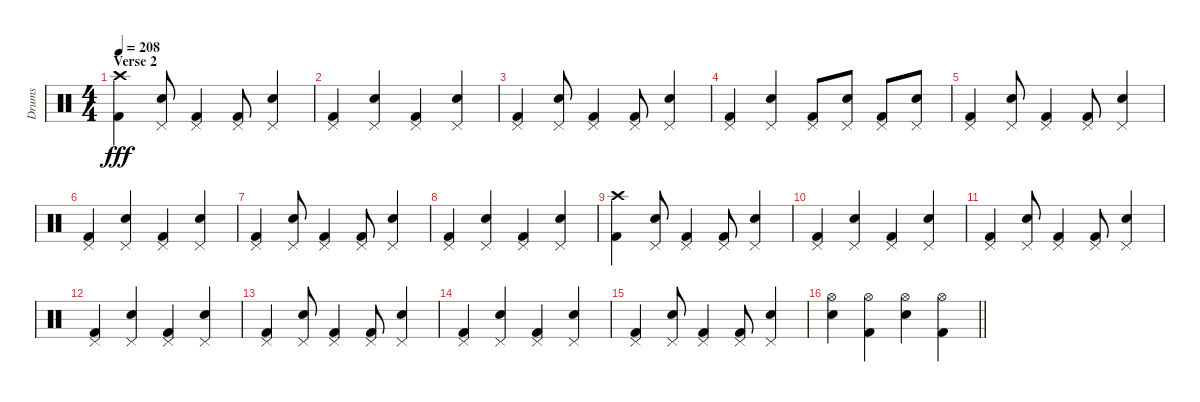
\track ("Drums" "Drums") {instrument percussion}
\staff {score}
\articulation defaults
\ts (4 4)
\section ("" "Verse 2")
\tempo 208
\clef neutral
\ks c
("Crash high (hit)" "Kick (hit) 2").4{dy fff} ("Pedal Hi-Hat (hit)" "Snare (hit) 2").8 ("Pedal Hi-Hat (hit)" "Kick (hit) 2").4 ("Pedal Hi-Hat (hit)" "Kick (hit) 2").8 ("Pedal Hi-Hat (hit)" "Snare (hit) 2").4 |
("Pedal Hi-Hat (hit)" "Kick (hit) 2").4 ("Pedal Hi-Hat (hit)" "Snare (hit) 2").4 ("Pedal Hi-Hat (hit)" "Kick (hit) 2").4 ("Pedal Hi-Hat (hit)" "Snare (hit) 2").4 |
("Pedal Hi-Hat (hit)" "Kick (hit) 2").4 ("Pedal Hi-Hat (hit)" "Snare (hit) 2").8 ("Pedal Hi-Hat (hit)" "Kick (hit) 2").4 ("Pedal Hi-Hat (hit)" "Kick (hit) 2").8 ("Pedal Hi-Hat (hit)" "Snare (hit) 2").4 |
("Pedal Hi-Hat (hit)" "Kick (hit) 2").4 ("Pedal Hi-Hat (hit)" "Snare (hit) 2").4 ("Pedal Hi-Hat (hit)" "Kick (hit) 2").8 ("Pedal Hi-Hat (hit)" "Snare (hit) 2").8 ("Pedal Hi-Hat (hit)" "Kick (hit) 2").8 ("Pedal Hi-Hat (hit)" "Snare (hit) 2").8 |
("Pedal Hi-Hat (hit)" "Kick (hit) 2").4 ("Pedal Hi-Hat (hit)" "Snare (hit) 2").8 ("Pedal Hi-Hat (hit)" "Kick (hit) 2").4 ("Pedal Hi-Hat (hit)" "Kick (hit) 2").8 ("Pedal Hi-Hat (hit)" "Snare (hit) 2").4 |
("Pedal Hi-Hat (hit)" "Kick (hit) 2").4 ("Pedal Hi-Hat (hit)" "Snare (hit) 2").4 ("Pedal Hi-Hat (hit)" "Kick (hit) 2").4 ("Pedal Hi-Hat (hit)" "Snare (hit) 2").4 |
("Pedal Hi-Hat (hit)" "Kick (hit) 2").4 ("Pedal Hi-Hat (hit)" "Snare (hit) 2").8 ("Pedal Hi-Hat (hit)" "Kick (hit) 2").4 ("Pedal Hi-Hat (hit)" "Kick (hit) 2").8 ("Pedal Hi-Hat (hit)" "Snare (hit) 2").4 |
("Pedal Hi-Hat (hit)" "Kick (hit) 2").4 ("Pedal Hi-Hat (hit)" "Snare (hit) 2").4 ("Pedal Hi-Hat (hit)" "Kick (hit) 2").4 ("Pedal Hi-Hat (hit)" "Snare (hit) 2").4 |
("Crash high (hit)" "Kick (hit) 2").4 ("Pedal Hi-Hat (hit)" "Snare (hit) 2").8 ("Pedal Hi-Hat (hit)" "Kick (hit) 2").4 ("Pedal Hi-Hat (hit)" "Kick (hit) 2").8 ("Pedal Hi-Hat (hit)" "Snare (hit) 2").4 |
("Pedal Hi-Hat (hit)" "Kick (hit) 2").4 ("Pedal Hi-Hat (hit)" "Snare (hit) 2").4 ("Pedal Hi-Hat (hit)" "Kick (hit) 2").4 ("Pedal Hi-Hat (hit)" "Snare (hit) 2").4 |
("Pedal Hi-Hat (hit)" "Kick (hit) 2").4 ("Pedal Hi-Hat (hit)" "Snare (hit) 2").8 ("Pedal Hi-Hat (hit)" "Kick (hit) 2").4 ("Pedal Hi-Hat (hit)" "Kick (hit) 2").8 ("Pedal Hi-Hat (hit)" "Snare (hit) 2").4 |
("Pedal Hi-Hat (hit)" "Kick (hit) 2").4 ("Pedal Hi-Hat (hit)" "Snare (hit) 2").4 ("Pedal Hi-Hat (hit)" "Kick (hit) 2").4 ("Pedal Hi-Hat (hit)" "Snare (hit) 2").4 |
("Pedal Hi-Hat (hit)" "Kick (hit) 2").4 ("Pedal Hi-Hat (hit)" "Snare (hit) 2").8 ("Pedal Hi-Hat (hit)" "Kick (hit) 2").4 ("Pedal Hi-Hat (hit)" "Kick (hit) 2").8 ("Pedal Hi-Hat (hit)" "Snare (hit) 2").4 |
("Pedal Hi-Hat (hit)" "Kick (hit) 2").4 ("Pedal Hi-Hat (hit)" "Snare (hit) 2").4 ("Pedal Hi-Hat (hit)" "Kick (hit) 2").4 ("Pedal Hi-Hat (hit)" "Snare (hit) 2").4 |
("Pedal Hi-Hat (hit)" "Kick (hit) 2").4 ("Pedal Hi-Hat (hit)" "Snare (hit) 2").8 ("Pedal Hi-Hat (hit)" "Kick (hit) 2").4 ("Pedal Hi-Hat (hit)" "Kick (hit) 2").8 ("Pedal Hi-Hat (hit)" "Snare (hit) 2").4 |
\barLineRight lightlight
("Hi-Hat (open)" "Snare (hit) 2").4 ("Hi-Hat (open)" "Kick (hit) 2").4 ("Hi-Hat (open)" "Snare (hit) 2").4 ("Hi-Hat (open)" "Kick (hit) 2").4
